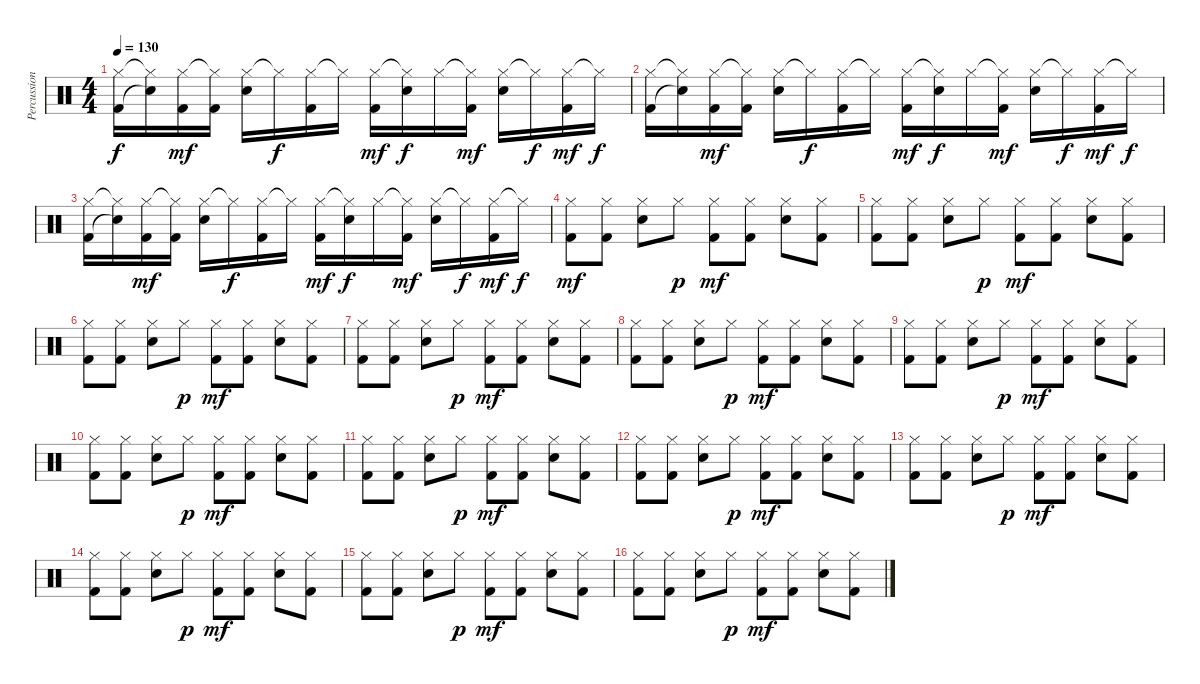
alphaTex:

\track ("Percussion" "Percussion") {instrument percussion}
\staff {score}
\articulation defaults
\ts (4 4)
\tempo 130
\clef neutral
\ks c
("Hi-Hat (closed)" "Kick (hit) 2").16{dy f} ("Hi-Hat (closed)"{t} "Snare (hit)"{t}).16 ("Hi-Hat (closed)" "Kick (hit) 2").16{dy mf} ("Hi-Hat (closed)"{t} "Kick (hit) 2").16 ("Hi-Hat (closed)" "Snare (hit) 2").16 "Hi-Hat (closed)"{t}.16{dy f} ("Hi-Hat (closed)" "Kick (hit) 2").16 "Hi-Hat (closed)"{t}.16 ("Hi-Hat (closed)" "Kick (hit) 2").16{dy mf} ("Hi-Hat (closed)"{t} "Snare (hit) 2").16{dy f} "Hi-Hat (closed)".16 ("Hi-Hat (closed)"{t} "Kick (hit) 2").16{dy mf} ("Hi-Hat (closed)" "Snare (hit) 2").16 "Hi-Hat (closed)"{t}.16{dy f} ("Hi-Hat (closed)" "Kick (hit) 2").16{dy mf} "Hi-Hat (closed)"{t}.16{dy f} |
("Hi-Hat (closed)" "Kick (hit) 2").16 ("Hi-Hat (closed)"{t} "Snare (hit)"{t}).16 ("Hi-Hat (closed)" "Kick (hit) 2").16{dy mf} ("Hi-Hat (closed)"{t} "Kick (hit) 2").16 ("Hi-Hat (closed)" "Snare (hit) 2").16 "Hi-Hat (closed)"{t}.16{dy f} ("Hi-Hat (closed)" "Kick (hit) 2").16 "Hi-Hat (closed)"{t}.16 ("Hi-Hat (closed)" "Kick (hit) 2").16{dy mf} ("Hi-Hat (closed)"{t} "Snare (hit) 2").16{dy f} "Hi-Hat (closed)".16 ("Hi-Hat (closed)"{t} "Kick (hit) 2").16{dy mf} ("Hi-Hat (closed)" "Snare (hit) 2").16 "Hi-Hat (closed)"{t}.16{dy f} ("Hi-Hat (closed)" "Kick (hit) 2").16{dy mf} "Hi-Hat (closed)"{t}.16{dy f} |
("Hi-Hat (closed)" "Kick (hit) 2").16 ("Hi-Hat (closed)"{t} "Snare (hit)"{t}).16 ("Hi-Hat (closed)" "Kick (hit) 2").16{dy mf} ("Hi-Hat (closed)"{t} "Kick (hit) 2").16 ("Hi-Hat (closed)" "Snare (hit) 2").16 "Hi-Hat (closed)"{t}.16{dy f} ("Hi-Hat (closed)" "Kick (hit) 2").16 "Hi-Hat (closed)"{t}.16 ("Hi-Hat (closed)" "Kick (hit) 2").16{dy mf} ("Hi-Hat (closed)"{t} "Snare (hit) 2").16{dy f} "Hi-Hat (closed)".16 ("Hi-Hat (closed)"{t} "Kick (hit) 2").16{dy mf} ("Hi-Hat (closed)" "Snare (hit) 2").16 "Hi-Hat (closed)"{t}.16{dy f} ("Hi-Hat (closed)" "Kick (hit) 2").16{dy mf} "Hi-Hat (closed)"{t}.16{dy f} |
("Hi-Hat (closed)" "Kick (hit) 2").8{dy mf} ("Hi-Hat (closed)" "Kick (hit) 2").8 ("Hi-Hat (closed)" "Snare (hit) 2").8 "Hi-Hat (closed)".8{dy p} ("Hi-Hat (closed)" "Kick (hit) 2").8{dy mf} ("Hi-Hat (closed)" "Kick (hit) 2").8 ("Hi-Hat (closed)" "Snare (hit) 2").8 ("Hi-Hat (closed)" "Kick (hit) 2").8 |
("Hi-Hat (closed)" "Kick (hit) 2").8 ("Hi-Hat (closed)" "Kick (hit) 2").8 ("Hi-Hat (closed)" "Snare (hit) 2").8 "Hi-Hat (closed)".8{dy p} ("Hi-Hat (closed)" "Kick (hit) 2").8{dy mf} ("Hi-Hat (closed)" "Kick (hit) 2").8 ("Hi-Hat (closed)" "Snare (hit) 2").8 ("Hi-Hat (closed)" "Kick (hit) 2").8 |
("Hi-Hat (closed)" "Kick (hit) 2").8 ("Hi-Hat (closed)" "Kick (hit) 2").8 ("Hi-Hat (closed)" "Snare (hit) 2").8 "Hi-Hat (closed)".8{dy p} ("Hi-Hat (closed)" "Kick (hit) 2").8{dy mf} ("Hi-Hat (closed)" "Kick (hit) 2").8 ("Hi-Hat (closed)" "Snare (hit) 2").8 ("Hi-Hat (closed)" "Kick (hit) 2").8 |
("Hi-Hat (closed)" "Kick (hit) 2").8 ("Hi-Hat (closed)" "Kick (hit) 2").8 ("Hi-Hat (closed)" "Snare (hit) 2").8 "Hi-Hat (closed)".8{dy p} ("Hi-Hat (closed)" "Kick (hit) 2").8{dy mf} ("Hi-Hat (closed)" "Kick (hit) 2").8 ("Hi-Hat (closed)" "Snare (hit) 2").8 ("Hi-Hat (closed)" "Kick (hit) 2").8 |
("Hi-Hat (closed)" "Kick (hit) 2").8 ("Hi-Hat (closed)" "Kick (hit) 2").8 ("Hi-Hat (closed)" "Snare (hit) 2").8 "Hi-Hat (closed)".8{dy p} ("Hi-Hat (closed)" "Kick (hit) 2").8{dy mf} ("Hi-Hat (closed)" "Kick (hit) 2").8 ("Hi-Hat (closed)" "Snare (hit) 2").8 ("Hi-Hat (closed)" "Kick (hit) 2").8 |
("Hi-Hat (closed)" "Kick (hit) 2").8 ("Hi-Hat (closed)" "Kick (hit) 2").8 ("Hi-Hat (closed)" "Snare (hit) 2").8 "Hi-Hat (closed)".8{dy p} ("Hi-Hat (closed)" "Kick (hit) 2").8{dy mf} ("Hi-Hat (closed)" "Kick (hit) 2").8 ("Hi-Hat (closed)" "Snare (hit) 2").8 ("Hi-Hat (closed)" "Kick (hit) 2").8 |
("Hi-Hat (closed)" "Kick (hit) 2").8 ("Hi-Hat (closed)" "Kick (hit) 2").8 ("Hi-Hat (closed)" "Snare (hit) 2").8 "Hi-Hat (closed)".8{dy p} ("Hi-Hat (closed)" "Kick (hit) 2").8{dy mf} ("Hi-Hat (closed)" "Kick (hit) 2").8 ("Hi-Hat (closed)" "Snare (hit) 2").8 ("Hi-Hat (closed)" "Kick (hit) 2").8 |
("Hi-Hat (closed)" "Kick (hit) 2").8 ("Hi-Hat (closed)" "Kick (hit) 2").8 ("Hi-Hat (closed)" "Snare (hit) 2").8 "Hi-Hat (closed)".8{dy p} ("Hi-Hat (closed)" "Kick (hit) 2").8{dy mf} ("Hi-Hat (closed)" "Kick (hit) 2").8 ("Hi-Hat (closed)" "Snare (hit) 2").8 ("Hi-Hat (closed)" "Kick (hit) 2").8 |
("Hi-Hat (closed)" "Kick (hit) 2").8 ("Hi-Hat (closed)" "Kick (hit) 2").8 ("Hi-Hat (closed)" "Snare (hit) 2").8 "Hi-Hat (closed)".8{dy p} ("Hi-Hat (closed)" "Kick (hit) 2").8{dy mf} ("Hi-Hat (closed)" "Kick (hit) 2").8 ("Hi-Hat (closed)" "Snare (hit) 2").8 ("Hi-Hat (closed)" "Kick (hit) 2").8 |
("Hi-Hat (closed)" "Kick (hit) 2").8 ("Hi-Hat (closed)" "Kick (hit) 2").8 ("Hi-Hat (closed)" "Snare (hit) 2").8 "Hi-Hat (closed)".8{dy p} ("Hi-Hat (closed)" "Kick (hit) 2").8{dy mf} ("Hi-Hat (closed)" "Kick (hit) 2").8 ("Hi-Hat (closed)" "Snare (hit) 2").8 ("Hi-Hat (closed)" "Kick (hit) 2").8 |
("Hi-Hat (closed)" "Kick (hit) 2").8 ("Hi-Hat (closed)" "Kick (hit) 2").8 ("Hi-Hat (closed)" "Snare (hit) 2").8 "Hi-Hat (closed)".8{dy p} ("Hi-Hat (closed)" "Kick (hit) 2").8{dy mf} ("Hi-Hat (closed)" "Kick (hit) 2").8 ("Hi-Hat (closed)" "Snare (hit) 2").8 ("Hi-Hat (closed)" "Kick (hit) 2").8 |
("Hi-Hat (closed)" "Kick (hit) 2").8 ("Hi-Hat (closed)" "Kick (hit) 2").8 ("Hi-Hat (closed)" "Snare (hit) 2").8 "Hi-Hat (closed)".8{dy p} ("Hi-Hat (closed)" "Kick (hit) 2").8{dy mf} ("Hi-Hat (closed)" "Kick (hit) 2").8 ("Hi-Hat (closed)" "Snare (hit) 2").8 ("Hi-Hat (closed)" "Kick (hit) 2").8 |
("Hi-Hat (closed)" "Kick (hit) 2").8 ("Hi-Hat (closed)" "Kick (hit) 2").8 ("Hi-Hat (closed)" "Snare (hit) 2").8 "Hi-Hat (closed)".8{dy p} ("Hi-Hat (closed)" "Kick (hit) 2").8{dy mf} ("Hi-Hat (closed)" "Kick (hit) 2").8 ("Hi-Hat (closed)" "Snare (hit) 2").8 ("Hi-Hat (closed)" "Kick (hit) 2").8
